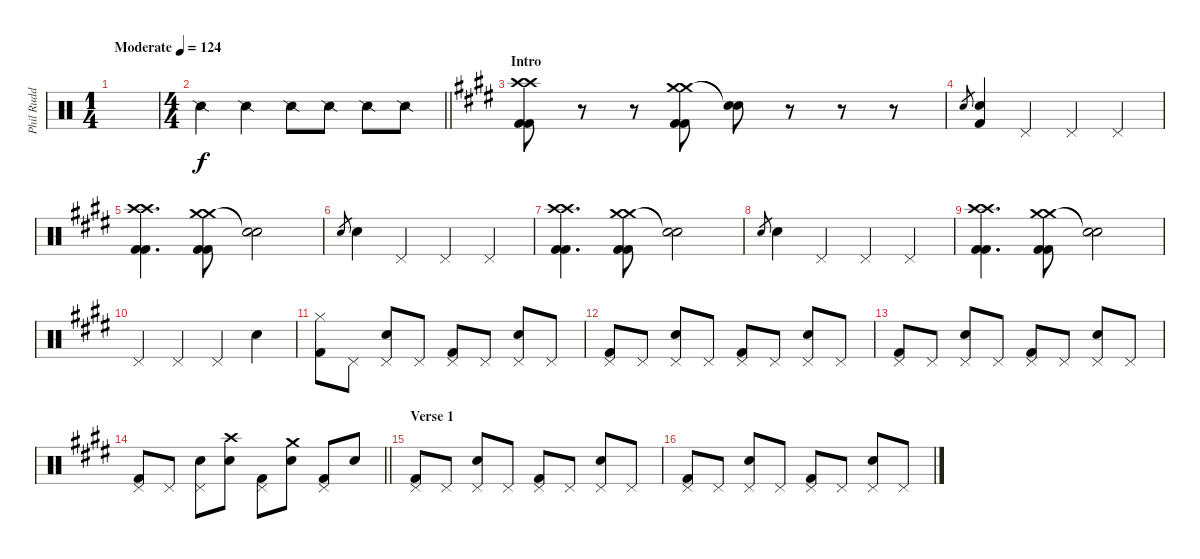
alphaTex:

\track ("Phil Rudd (Drums)" "Phil Rudd ") {instrument percussion}
\staff {score}
\articulation defaults
\ts (1 4)
\tempo (124 "Moderate")
\clef neutral
\ks c
|
\ts (4 4)
\barLineRight lightlight "Snare (side stick) 2".4 "Snare (side stick) 2".4 "Snare (side stick) 2".8 "Snare (side stick) 2".8 "Snare (side stick) 2".8 "Snare (side stick) 2".8
|
\section ("" "Intro")
\ks e
("Crash high (hit)" "Crash high (hit)" "Kick (hit) 2" "Kick (hit) 2").8 r.8 r.8 ("Crash medium (hit)" "Crash medium (hit)" "Kick (hit) 2" "Kick (hit) 2").8 ("Snare (hit)"{t} "Snare (hit)"{t}).8 r.8 r.8 r.8 |
"Snare (hit) 2".8{gr} ("Snare (hit) 2" "Kick (hit) 2").4 "Pedal Hi-Hat (hit)".4 "Pedal Hi-Hat (hit)".4 "Pedal Hi-Hat (hit)".4 |
("Crash high (hit)" "Crash high (hit)" "Kick (hit) 2" "Kick (hit) 2").4{d} ("Crash medium (hit)" "Crash medium (hit)" "Kick (hit) 2" "Kick (hit) 2").8 ("Snare (hit)"{t} "Snare (hit)"{t}).2 |
"Snare (hit) 2".8{gr} "Snare (hit) 2".4 "Pedal Hi-Hat (hit)".4 "Pedal Hi-Hat (hit)".4 "Pedal Hi-Hat (hit)".4 |
("Crash high (hit)" "Crash high (hit)" "Kick (hit) 2" "Kick (hit) 2").4{d} ("Crash medium (hit)" "Crash medium (hit)" "Kick (hit) 2" "Kick (hit) 2").8 ("Snare (hit)"{t} "Snare (hit)"{t}).2 |
"Snare (hit) 2".8{gr} "Snare (hit) 2".4 "Pedal Hi-Hat (hit)".4 "Pedal Hi-Hat (hit)".4 "Pedal Hi-Hat (hit)".4 |
("Crash high (hit)" "Crash high (hit)" "Kick (hit) 2" "Kick (hit) 2").4{d} ("Crash medium (hit)" "Crash medium (hit)" "Kick (hit) 2" "Kick (hit) 2").8 ("Snare (hit)"{t} "Snare (hit)"{t}).2 |
"Pedal Hi-Hat (hit)".4 "Pedal Hi-Hat (hit)".4 "Pedal Hi-Hat (hit)".4 "Snare (hit) 2".4 |
("Hi-Hat (closed)" "Kick (hit) 2").8 "Pedal Hi-Hat (hit)".8 ("Pedal Hi-Hat (hit)" "Snare (hit) 2").8 "Pedal Hi-Hat (hit)".8 ("Pedal Hi-Hat (hit)" "Kick (hit) 2").8 "Pedal Hi-Hat (hit)".8 ("Pedal Hi-Hat (hit)" "Snare (hit) 2").8 "Pedal Hi-Hat (hit)".8 |
("Pedal Hi-Hat (hit)" "Kick (hit) 2").8 "Pedal Hi-Hat (hit)".8 ("Pedal Hi-Hat (hit)" "Snare (hit) 2").8 "Pedal Hi-Hat (hit)".8 ("Pedal Hi-Hat (hit)" "Kick (hit) 2").8 "Pedal Hi-Hat (hit)".8 ("Pedal Hi-Hat (hit)" "Snare (hit) 2").8 "Pedal Hi-Hat (hit)".8 |
("Pedal Hi-Hat (hit)" "Kick (hit) 2").8 "Pedal Hi-Hat (hit)".8 ("Pedal Hi-Hat (hit)" "Snare (hit) 2").8 "Pedal Hi-Hat (hit)".8 ("Pedal Hi-Hat (hit)" "Kick (hit) 2").8 "Pedal Hi-Hat (hit)".8 ("Pedal Hi-Hat (hit)" "Snare (hit) 2").8 "Pedal Hi-Hat (hit)".8 |
\barLineRight lightlight
("Pedal Hi-Hat (hit)" "Kick (hit) 2").8 "Pedal Hi-Hat (hit)".8 ("Pedal Hi-Hat (hit)" "Snare (hit) 2").8 ("Crash high (hit)" "Snare (hit) 2").8 ("Pedal Hi-Hat (hit)" "Kick (hit) 2").8 ("Crash medium (hit)" "Snare (hit) 2").8 ("Pedal Hi-Hat (hit)" "Kick (hit) 2").8 "Snare (hit) 2".8 |
\section ("" "Verse 1")
("Pedal Hi-Hat (hit)" "Kick (hit) 2").8 "Pedal Hi-Hat (hit)".8 ("Pedal Hi-Hat (hit)" "Snare (hit) 2").8 "Pedal Hi-Hat (hit)".8 ("Pedal Hi-Hat (hit)" "Kick (hit) 2").8 "Pedal Hi-Hat (hit)".8 ("Pedal Hi-Hat (hit)" "Snare (hit) 2").8 "Pedal Hi-Hat (hit)".8 |
("Pedal Hi-Hat (hit)" "Kick (hit) 2").8 "Pedal Hi-Hat (hit)".8 ("Pedal Hi-Hat (hit)" "Snare (hit) 2").8 "Pedal Hi-Hat (hit)".8 ("Pedal Hi-Hat (hit)" "Kick (hit) 2").8 "Pedal Hi-Hat (hit)".8 ("Pedal Hi-Hat (hit)" "Snare (hit) 2").8 "Pedal Hi-Hat (hit)".8
